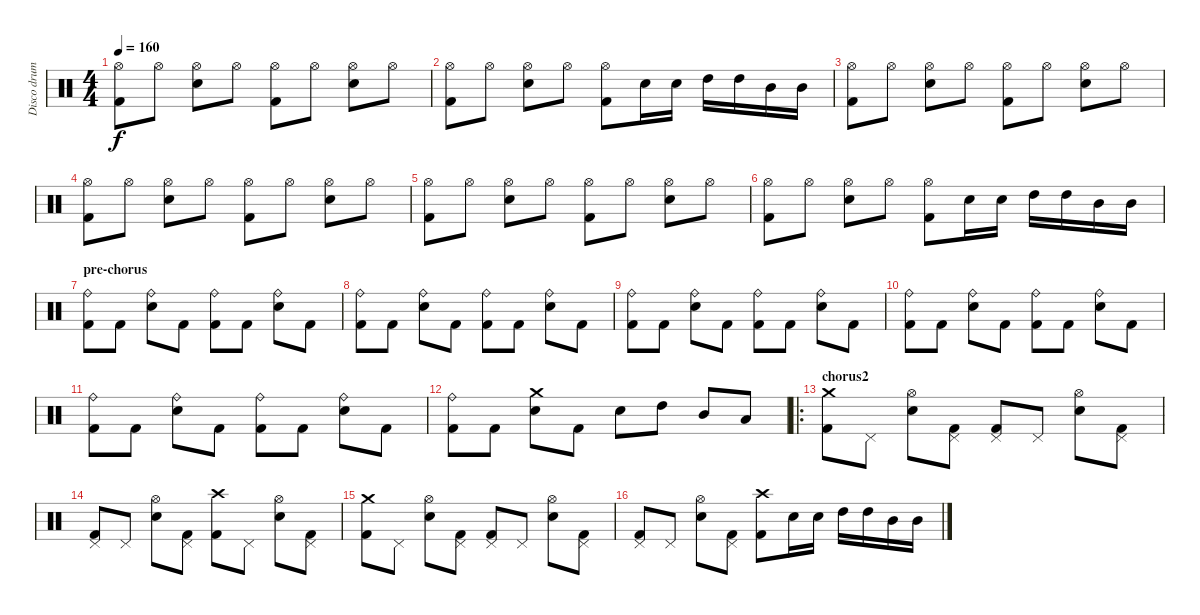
\track ("Disco drum" "Disco drum") {instrument percussion}
\staff {score}
\articulation defaults
\ts (4 4)
\tempo 160
\clef neutral
\ks c
("Hi-Hat (open)" "Kick (hit) 2").8{dy f} "Hi-Hat (open)".8 ("Hi-Hat (open)" "Electric Snare (hit)").8 "Hi-Hat (open)".8 ("Hi-Hat (open)" "Kick (hit) 2").8 "Hi-Hat (open)".8 ("Hi-Hat (open)" "Electric Snare (hit)").8 "Hi-Hat (open)".8 |
("Hi-Hat (open)" "Kick (hit) 2").8 "Hi-Hat (open)".8 ("Hi-Hat (open)" "Electric Snare (hit)").8 "Hi-Hat (open)".8 ("Hi-Hat (open)" "Kick (hit) 2").8 "Electric Snare (hit)".16 "Electric Snare (hit)".16 "High Tom (hit)".16 "High Tom (hit)".16 "Mid Tom (hit)".16 "Mid Tom (hit)".16 |
("Hi-Hat (open)" "Kick (hit) 2").8 "Hi-Hat (open)".8 ("Hi-Hat (open)" "Electric Snare (hit)").8 "Hi-Hat (open)".8 ("Hi-Hat (open)" "Kick (hit) 2").8 "Hi-Hat (open)".8 ("Hi-Hat (open)" "Electric Snare (hit)").8 "Hi-Hat (open)".8 |
("Hi-Hat (open)" "Kick (hit) 2").8 "Hi-Hat (open)".8 ("Hi-Hat (open)" "Electric Snare (hit)").8 "Hi-Hat (open)".8 ("Hi-Hat (open)" "Kick (hit) 2").8 "Hi-Hat (open)".8 ("Hi-Hat (open)" "Electric Snare (hit)").8 "Hi-Hat (open)".8 |
("Hi-Hat (open)" "Kick (hit) 2").8 "Hi-Hat (open)".8 ("Hi-Hat (open)" "Electric Snare (hit)").8 "Hi-Hat (open)".8 ("Hi-Hat (open)" "Kick (hit) 2").8 "Hi-Hat (open)".8 ("Hi-Hat (open)" "Electric Snare (hit)").8 "Hi-Hat (open)".8 |
("Hi-Hat (open)" "Kick (hit) 2").8 "Hi-Hat (open)".8 ("Hi-Hat (open)" "Electric Snare (hit)").8 "Hi-Hat (open)".8 ("Hi-Hat (open)" "Kick (hit) 2").8 "Electric Snare (hit)".16 "Electric Snare (hit)".16 "High Tom (hit)".16 "High Tom (hit)".16 "Mid Tom (hit)".16 "Mid Tom (hit)".16 |
\section ("" "pre-chorus")
("Ride (bell)" "Kick (hit) 2").8 "Kick (hit) 2".8 ("Ride (bell)" "Electric Snare (hit)").8 "Kick (hit) 2".8 ("Ride (bell)" "Kick (hit) 2").8 "Kick (hit) 2".8 ("Ride (bell)" "Electric Snare (hit)").8 "Kick (hit) 2".8 |
("Ride (bell)" "Kick (hit) 2").8 "Kick (hit) 2".8 ("Ride (bell)" "Electric Snare (hit)").8 "Kick (hit) 2".8 ("Ride (bell)" "Kick (hit) 2").8 "Kick (hit) 2".8 ("Ride (bell)" "Electric Snare (hit)").8 "Kick (hit) 2".8 |
("Ride (bell)" "Kick (hit) 2").8 "Kick (hit) 2".8 ("Ride (bell)" "Electric Snare (hit)").8 "Kick (hit) 2".8 ("Ride (bell)" "Kick (hit) 2").8 "Kick (hit) 2".8 ("Ride (bell)" "Electric Snare (hit)").8 "Kick (hit) 2".8 |
("Ride (bell)" "Kick (hit) 2").8 "Kick (hit) 2".8 ("Ride (bell)" "Electric Snare (hit)").8 "Kick (hit) 2".8 ("Ride (bell)" "Kick (hit) 2").8 "Kick (hit) 2".8 ("Ride (bell)" "Electric Snare (hit)").8 "Kick (hit) 2".8 |
("Ride (bell)" "Kick (hit) 2").8 "Kick (hit) 2".8 ("Ride (bell)" "Electric Snare (hit)").8 "Kick (hit) 2".8 ("Ride (bell)" "Kick (hit) 2").8 "Kick (hit) 2".8 ("Ride (bell)" "Electric Snare (hit)").8 "Kick (hit) 2".8 |
("Ride (bell)" "Kick (hit) 2").8 "Kick (hit) 2".8 ("Crash medium (hit)" "Electric Snare (hit)").8 "Kick (hit) 2".8 "Electric Snare (hit)".8 "High Tom (hit)".8 "Mid Tom (hit)".8 "Low Tom (hit)".8 |
\ro
\section ("" "chorus2")
("Crash medium (hit)" "Kick (hit) 2").8 "Pedal Hi-Hat (hit)".8 ("Hi-Hat (open)" "Electric Snare (hit)").8 ("Pedal Hi-Hat (hit)" "Kick (hit) 2").8 ("Pedal Hi-Hat (hit)" "Kick (hit) 2").8 "Pedal Hi-Hat (hit)".8 ("Hi-Hat (open)" "Electric Snare (hit)").8 ("Pedal Hi-Hat (hit)" "Kick (hit) 2").8 |
("Pedal Hi-Hat (hit)" "Kick (hit) 2").8 "Pedal Hi-Hat (hit)".8 ("Hi-Hat (open)" "Electric Snare (hit)").8 ("Pedal Hi-Hat (hit)" "Kick (hit) 2").8 ("Crash high (hit)" "Kick (hit) 2").8 "Pedal Hi-Hat (hit)".8 ("Hi-Hat (open)" "Electric Snare (hit)").8 ("Pedal Hi-Hat (hit)" "Kick (hit) 2").8 |
("Crash medium (hit)" "Kick (hit) 2").8 "Pedal Hi-Hat (hit)".8 ("Hi-Hat (open)" "Electric Snare (hit)").8 ("Pedal Hi-Hat (hit)" "Kick (hit) 2").8 ("Pedal Hi-Hat (hit)" "Kick (hit) 2").8 "Pedal Hi-Hat (hit)".8 ("Hi-Hat (open)" "Electric Snare (hit)").8 ("Pedal Hi-Hat (hit)" "Kick (hit) 2").8 |
("Pedal Hi-Hat (hit)" "Kick (hit) 2").8 "Pedal Hi-Hat (hit)".8 ("Hi-Hat (open)" "Electric Snare (hit)").8 ("Pedal Hi-Hat (hit)" "Kick (hit) 2").8 ("Crash high (hit)" "Kick (hit) 2").8 "Electric Snare (hit)".16 "Electric Snare (hit)".16 "High Tom (hit)".16 "High Tom (hit)".16 "Mid Tom (hit)".16 "Mid Tom (hit)".16
